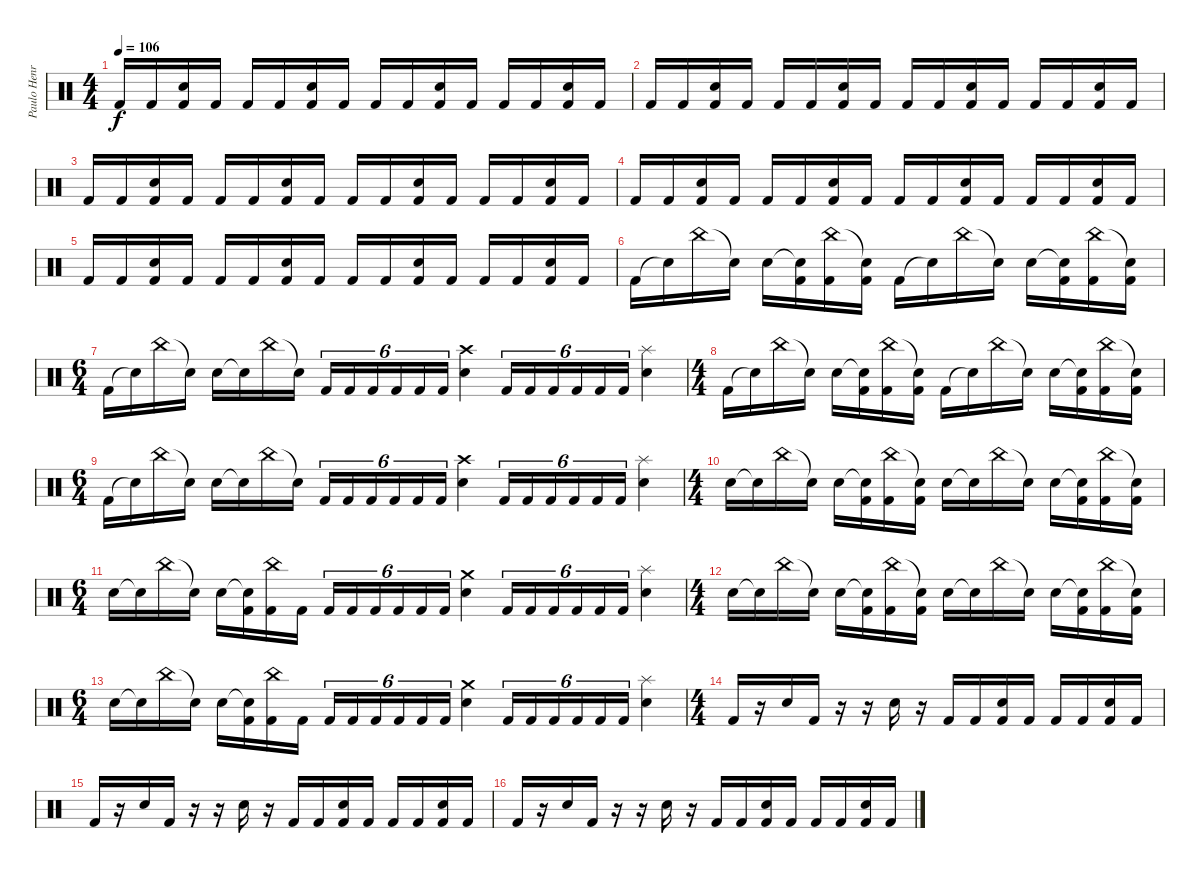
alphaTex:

\track ("Paulo Henrique" "Paulo Henr") {instrument percussion}
\staff {score}
\articulation defaults
\ts (4 4)
\tempo 106
\clef neutral
\ks c "Kick (hit) 2".16{dy f} "Kick (hit) 2".16
("Electric Snare (hit)" "Kick (hit) 2").16 "Kick (hit) 2".16 "Kick (hit) 2".16 "Kick (hit) 2".16 ("Electric Snare (hit)" "Kick (hit) 2").16 "Kick (hit) 2".16 "Kick (hit) 2".16 "Kick (hit) 2".16 ("Electric Snare (hit)" "Kick (hit) 2").16 "Kick (hit) 2".16 "Kick (hit) 2".16 "Kick (hit) 2".16 ("Electric Snare (hit)" "Kick (hit) 2").16 "Kick (hit) 2".16 |
"Kick (hit) 2".16 "Kick (hit) 2".16 ("Electric Snare (hit)" "Kick (hit) 2").16 "Kick (hit) 2".16 "Kick (hit) 2".16 "Kick (hit) 2".16 ("Electric Snare (hit)" "Kick (hit) 2").16 "Kick (hit) 2".16 "Kick (hit) 2".16 "Kick (hit) 2".16 ("Electric Snare (hit)" "Kick (hit) 2").16 "Kick (hit) 2".16 "Kick (hit) 2".16 "Kick (hit) 2".16 ("Electric Snare (hit)" "Kick (hit) 2").16 "Kick (hit) 2".16 |
"Kick (hit) 2".16 "Kick (hit) 2".16 ("Electric Snare (hit)" "Kick (hit) 2").16 "Kick (hit) 2".16 "Kick (hit) 2".16 "Kick (hit) 2".16 ("Electric Snare (hit)" "Kick (hit) 2").16 "Kick (hit) 2".16 "Kick (hit) 2".16 "Kick (hit) 2".16 ("Electric Snare (hit)" "Kick (hit) 2").16 "Kick (hit) 2".16 "Kick (hit) 2".16 "Kick (hit) 2".16 ("Electric Snare (hit)" "Kick (hit) 2").16 "Kick (hit) 2".16 |
"Kick (hit) 2".16 "Kick (hit) 2".16 ("Electric Snare (hit)" "Kick (hit) 2").16 "Kick (hit) 2".16 "Kick (hit) 2".16 "Kick (hit) 2".16 ("Electric Snare (hit)" "Kick (hit) 2").16 "Kick (hit) 2".16 "Kick (hit) 2".16 "Kick (hit) 2".16 ("Electric Snare (hit)" "Kick (hit) 2").16 "Kick (hit) 2".16 "Kick (hit) 2".16 "Kick (hit) 2".16 ("Electric Snare (hit)" "Kick (hit) 2").16 "Kick (hit) 2".16 |
"Kick (hit) 2".16 "Kick (hit) 2".16 ("Electric Snare (hit)" "Kick (hit) 2").16 "Kick (hit) 2".16 "Kick (hit) 2".16 "Kick (hit) 2".16 ("Electric Snare (hit)" "Kick (hit) 2").16 "Kick (hit) 2".16 "Kick (hit) 2".16 "Kick (hit) 2".16 ("Electric Snare (hit)" "Kick (hit) 2").16 "Kick (hit) 2".16 "Kick (hit) 2".16 "Kick (hit) 2".16 ("Electric Snare (hit)" "Kick (hit) 2").16 "Kick (hit) 2".16 |
"Kick (hit) 2".16 "Snare (hit)"{t}.16 "China (hit)".16 "Snare (hit)"{t}.16 "Electric Snare (hit)".16 ("Snare (hit)"{t} "Kick (hit) 2").16 ("China (hit)" "Kick (hit) 2").16 ("Snare (hit)"{t} "Kick (hit) 2").16 "Kick (hit) 2".16 "Snare (hit)"{t}.16 "China (hit)".16 "Snare (hit)"{t}.16 "Electric Snare (hit)".16 ("Snare (hit)"{t} "Kick (hit) 2").16 ("China (hit)" "Kick (hit) 2").16 ("Snare (hit)"{t} "Kick (hit) 2").16 |
\ts (6 4)
"Kick (hit) 2".16 "Snare (hit)"{t}.16 "China (hit)".16 "Snare (hit)"{t}.16 "Electric Snare (hit)".16 "Snare (hit)"{t}.16 "China (hit)".16 "Snare (hit)"{t}.16 "Kick (hit) 2".16{tu (6 4)} "Kick (hit) 2".16{tu (6 4)} "Kick (hit) 2".16{tu (6 4)} "Kick (hit) 2".16{tu (6 4)} "Kick (hit) 2".16{tu (6 4)} "Kick (hit) 2".16{tu (6 4)} ("Crash high (hit)" "Electric Snare (hit)").4 "Kick (hit) 2".16{tu (6 4)} "Kick (hit) 2".16{tu (6 4)} "Kick (hit) 2".16{tu (6 4)} "Kick (hit) 2".16{tu (6 4)} "Kick (hit) 2".16{tu (6 4)} "Kick (hit) 2".16{tu (6 4)} ("Splash (hit)" "Electric Snare (hit)").4 |
\ts (4 4)
"Kick (hit) 2".16 "Snare (hit)"{t}.16 "China (hit)".16 "Snare (hit)"{t}.16 "Electric Snare (hit)".16 ("Snare (hit)"{t} "Kick (hit) 2").16 ("China (hit)" "Kick (hit) 2").16 ("Snare (hit)"{t} "Kick (hit) 2").16 "Kick (hit) 2".16 "Snare (hit)"{t}.16 "China (hit)".16 "Snare (hit)"{t}.16 "Electric Snare (hit)".16 ("Snare (hit)"{t} "Kick (hit) 2").16 ("China (hit)" "Kick (hit) 2").16 ("Snare (hit)"{t} "Kick (hit) 2").16 |
\ts (6 4)
"Kick (hit) 2".16 "Snare (hit)"{t}.16 "China (hit)".16 "Snare (hit)"{t}.16 "Electric Snare (hit)".16 "Snare (hit)"{t}.16 "China (hit)".16 "Snare (hit)"{t}.16 "Kick (hit) 2".16{tu (6 4)} "Kick (hit) 2".16{tu (6 4)} "Kick (hit) 2".16{tu (6 4)} "Kick (hit) 2".16{tu (6 4)} "Kick (hit) 2".16{tu (6 4)} "Kick (hit) 2".16{tu (6 4)} ("Crash high (hit)" "Electric Snare (hit)").4 "Kick (hit) 2".16{tu (6 4)} "Kick (hit) 2".16{tu (6 4)} "Kick (hit) 2".16{tu (6 4)} "Kick (hit) 2".16{tu (6 4)} "Kick (hit) 2".16{tu (6 4)} "Kick (hit) 2".16{tu (6 4)} ("Splash (hit)" "Electric Snare (hit)").4 |
\ts (4 4)
"Electric Snare (hit)".16 "Snare (hit)"{t}.16 "China (hit)".16 "Snare (hit)"{t}.16 "Electric Snare (hit)".16 ("Snare (hit)"{t} "Kick (hit) 2").16 ("China (hit)" "Kick (hit) 2").16 ("Snare (hit)"{t} "Kick (hit) 2").16 "Electric Snare (hit)".16 "Snare (hit)"{t}.16 "China (hit)".16 "Snare (hit)"{t}.16 "Electric Snare (hit)".16 ("Snare (hit)"{t} "Kick (hit) 2").16 ("China (hit)" "Kick (hit) 2").16 ("Snare (hit)"{t} "Kick (hit) 2").16 |
\ts (6 4)
"Electric Snare (hit)".16 "Snare (hit)"{t}.16 "China (hit)".16 "Snare (hit)"{t}.16 "Electric Snare (hit)".16 ("Snare (hit)"{t} "Kick (hit) 2").16 ("China (hit)" "Kick (hit) 2").16 "Kick (hit) 2".16 "Kick (hit) 2".16{tu (6 4)} "Kick (hit) 2".16{tu (6 4)} "Kick (hit) 2".16{tu (6 4)} "Kick (hit) 2".16{tu (6 4)} "Kick (hit) 2".16{tu (6 4)} "Kick (hit) 2".16{tu (6 4)} ("Crash medium (hit)" "Electric Snare (hit)").4 "Kick (hit) 2".16{tu (6 4)} "Kick (hit) 2".16{tu (6 4)} "Kick (hit) 2".16{tu (6 4)} "Kick (hit) 2".16{tu (6 4)} "Kick (hit) 2".16{tu (6 4)} "Kick (hit) 2".16{tu (6 4)} ("Splash (hit)" "Electric Snare (hit)").4 |
\ts (4 4)
"Electric Snare (hit)".16 "Snare (hit)"{t}.16 "China (hit)".16 "Snare (hit)"{t}.16 "Electric Snare (hit)".16 ("Snare (hit)"{t} "Kick (hit) 2").16 ("China (hit)" "Kick (hit) 2").16 ("Snare (hit)"{t} "Kick (hit) 2").16 "Electric Snare (hit)".16 "Snare (hit)"{t}.16 "China (hit)".16 "Snare (hit)"{t}.16 "Electric Snare (hit)".16 ("Snare (hit)"{t} "Kick (hit) 2").16 ("China (hit)" "Kick (hit) 2").16 ("Snare (hit)"{t} "Kick (hit) 2").16 |
\ts (6 4)
"Electric Snare (hit)".16 "Snare (hit)"{t}.16 "China (hit)".16 "Snare (hit)"{t}.16 "Electric Snare (hit)".16 ("Snare (hit)"{t} "Kick (hit) 2").16 ("China (hit)" "Kick (hit) 2").16 "Kick (hit) 2".16 "Kick (hit) 2".16{tu (6 4)} "Kick (hit) 2".16{tu (6 4)} "Kick (hit) 2".16{tu (6 4)} "Kick (hit) 2".16{tu (6 4)} "Kick (hit) 2".16{tu (6 4)} "Kick (hit) 2".16{tu (6 4)} ("Crash medium (hit)" "Electric Snare (hit)").4 "Kick (hit) 2".16{tu (6 4)} "Kick (hit) 2".16{tu (6 4)} "Kick (hit) 2".16{tu (6 4)} "Kick (hit) 2".16{tu (6 4)} "Kick (hit) 2".16{tu (6 4)} "Kick (hit) 2".16{tu (6 4)} ("Splash (hit)" "Electric Snare (hit)").4 |
\ts (4 4)
"Kick (hit) 2".16 r.16 "Electric Snare (hit)".16 "Kick (hit) 2".16 r.16 r.16 "Electric Snare (hit)".16 r.16 "Kick (hit) 2".16 "Kick (hit) 2".16 ("Electric Snare (hit)" "Kick (hit) 2").16 "Kick (hit) 2".16 "Kick (hit) 2".16 "Kick (hit) 2".16 ("Electric Snare (hit)" "Kick (hit) 2").16 "Kick (hit) 2".16 |
"Kick (hit) 2".16 r.16 "Electric Snare (hit)".16 "Kick (hit) 2".16 r.16 r.16 "Electric Snare (hit)".16 r.16 "Kick (hit) 2".16 "Kick (hit) 2".16 ("Electric Snare (hit)" "Kick (hit) 2").16 "Kick (hit) 2".16 "Kick (hit) 2".16 "Kick (hit) 2".16 ("Electric Snare (hit)" "Kick (hit) 2").16 "Kick (hit) 2".16 |
"Kick (hit) 2".16 r.16 "Electric Snare (hit)".16 "Kick (hit) 2".16 r.16 r.16 "Electric Snare (hit)".16 r.16 "Kick (hit) 2".16 "Kick (hit) 2".16 ("Electric Snare (hit)" "Kick (hit) 2").16 "Kick (hit) 2".16 "Kick (hit) 2".16 "Kick (hit) 2".16 ("Electric Snare (hit)" "Kick (hit) 2").16 "Kick (hit) 2".16
